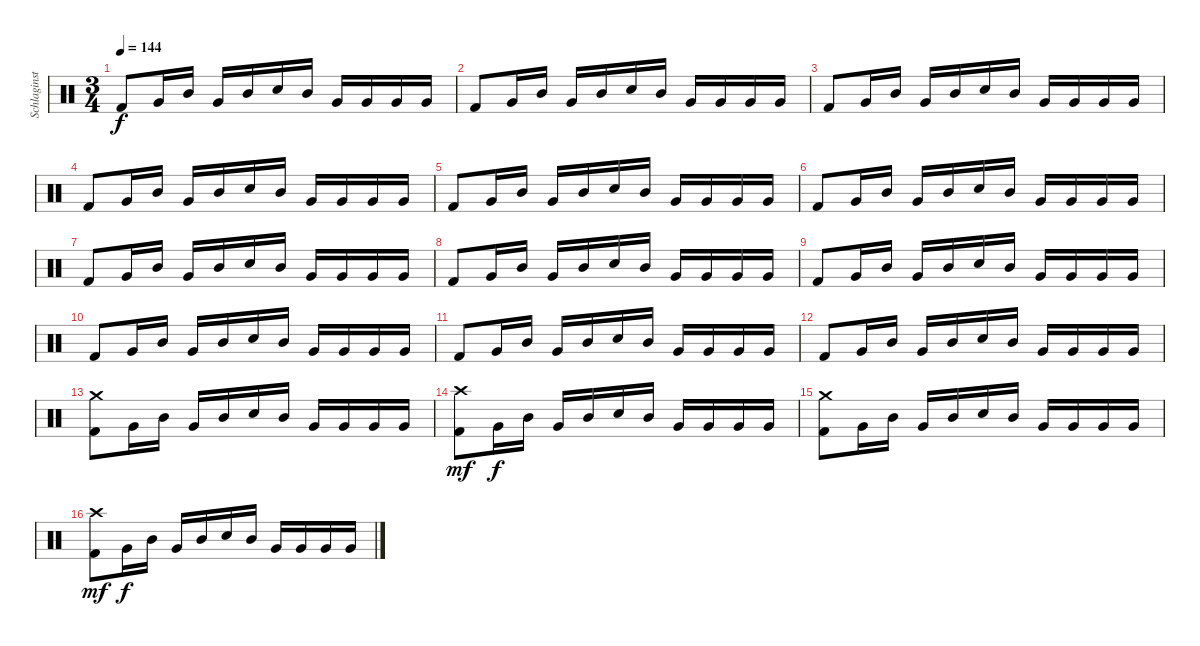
\track ("Schlaginstrumente - Auswahl" "Schlaginst") {instrument percussion}
\staff {score}
\articulation defaults
\ts (3 4)
\tempo 144
\clef neutral
\ks c "Kick (hit) 2".8{dy f} "Very Low Tom (hit)".16 "Mid Tom (hit)".16 "Very Low Tom (hit)".16 "Mid Tom (hit)".16 "Snare (hit) 2".16 "Mid Tom (hit)".16 "Very Low Tom (hit)".16 "Very Low Tom (hit)".16 "Very Low Tom (hit)".16 "Very Low Tom (hit)".16
|
"Kick (hit) 2".8 "Very Low Tom (hit)".16 "Mid Tom (hit)".16 "Very Low Tom (hit)".16 "Mid Tom (hit)".16 "Snare (hit) 2".16 "Mid Tom (hit)".16 "Very Low Tom (hit)".16 "Very Low Tom (hit)".16 "Very Low Tom (hit)".16 "Very Low Tom (hit)".16 |
"Kick (hit) 2".8 "Very Low Tom (hit)".16 "Mid Tom (hit)".16 "Very Low Tom (hit)".16 "Mid Tom (hit)".16 "Snare (hit) 2".16 "Mid Tom (hit)".16 "Very Low Tom (hit)".16 "Very Low Tom (hit)".16 "Very Low Tom (hit)".16 "Very Low Tom (hit)".16 |
"Kick (hit) 2".8 "Very Low Tom (hit)".16 "Mid Tom (hit)".16 "Very Low Tom (hit)".16 "Mid Tom (hit)".16 "Snare (hit) 2".16 "Mid Tom (hit)".16 "Very Low Tom (hit)".16 "Very Low Tom (hit)".16 "Very Low Tom (hit)".16 "Very Low Tom (hit)".16 |
"Kick (hit) 2".8 "Very Low Tom (hit)".16 "Mid Tom (hit)".16 "Very Low Tom (hit)".16 "Mid Tom (hit)".16 "Snare (hit) 2".16 "Mid Tom (hit)".16 "Very Low Tom (hit)".16 "Very Low Tom (hit)".16 "Very Low Tom (hit)".16 "Very Low Tom (hit)".16 |
"Kick (hit) 2".8 "Very Low Tom (hit)".16 "Mid Tom (hit)".16 "Very Low Tom (hit)".16 "Mid Tom (hit)".16 "Snare (hit) 2".16 "Mid Tom (hit)".16 "Very Low Tom (hit)".16 "Very Low Tom (hit)".16 "Very Low Tom (hit)".16 "Very Low Tom (hit)".16 |
"Kick (hit) 2".8 "Very Low Tom (hit)".16 "Mid Tom (hit)".16 "Very Low Tom (hit)".16 "Mid Tom (hit)".16 "Snare (hit) 2".16 "Mid Tom (hit)".16 "Very Low Tom (hit)".16 "Very Low Tom (hit)".16 "Very Low Tom (hit)".16 "Very Low Tom (hit)".16 |
"Kick (hit) 2".8 "Very Low Tom (hit)".16 "Mid Tom (hit)".16 "Very Low Tom (hit)".16 "Mid Tom (hit)".16 "Snare (hit) 2".16 "Mid Tom (hit)".16 "Very Low Tom (hit)".16 "Very Low Tom (hit)".16 "Very Low Tom (hit)".16 "Very Low Tom (hit)".16 |
"Kick (hit) 2".8 "Very Low Tom (hit)".16 "Mid Tom (hit)".16 "Very Low Tom (hit)".16 "Mid Tom (hit)".16 "Snare (hit) 2".16 "Mid Tom (hit)".16 "Very Low Tom (hit)".16 "Very Low Tom (hit)".16 "Very Low Tom (hit)".16 "Very Low Tom (hit)".16 |
"Kick (hit) 2".8 "Very Low Tom (hit)".16 "Mid Tom (hit)".16 "Very Low Tom (hit)".16 "Mid Tom (hit)".16 "Snare (hit) 2".16 "Mid Tom (hit)".16 "Very Low Tom (hit)".16 "Very Low Tom (hit)".16 "Very Low Tom (hit)".16 "Very Low Tom (hit)".16 |
"Kick (hit) 2".8 "Very Low Tom (hit)".16 "Mid Tom (hit)".16 "Very Low Tom (hit)".16 "Mid Tom (hit)".16 "Snare (hit) 2".16 "Mid Tom (hit)".16 "Very Low Tom (hit)".16 "Very Low Tom (hit)".16 "Very Low Tom (hit)".16 "Very Low Tom (hit)".16 |
"Kick (hit) 2".8 "Very Low Tom (hit)".16 "Mid Tom (hit)".16 "Very Low Tom (hit)".16 "Mid Tom (hit)".16 "Snare (hit) 2".16 "Mid Tom (hit)".16 "Very Low Tom (hit)".16 "Very Low Tom (hit)".16 "Very Low Tom (hit)".16 "Very Low Tom (hit)".16 |
("Crash medium (hit)" "Kick (hit) 2").8 "Very Low Tom (hit)".16 "Mid Tom (hit)".16 "Very Low Tom (hit)".16 "Mid Tom (hit)".16 "Snare (hit) 2".16 "Mid Tom (hit)".16 "Very Low Tom (hit)".16 "Very Low Tom (hit)".16 "Very Low Tom (hit)".16 "Very Low Tom (hit)".16 |
("Crash high (hit)" "Kick (hit) 2").8{dy mf} "Very Low Tom (hit)".16{dy f} "Mid Tom (hit)".16 "Very Low Tom (hit)".16 "Mid Tom (hit)".16 "Snare (hit) 2".16 "Mid Tom (hit)".16 "Very Low Tom (hit)".16 "Very Low Tom (hit)".16 "Very Low Tom (hit)".16 "Very Low Tom (hit)".16 |
("Crash medium (hit)" "Kick (hit) 2").8 "Very Low Tom (hit)".16 "Mid Tom (hit)".16 "Very Low Tom (hit)".16 "Mid Tom (hit)".16 "Snare (hit) 2".16 "Mid Tom (hit)".16 "Very Low Tom (hit)".16 "Very Low Tom (hit)".16 "Very Low Tom (hit)".16 "Very Low Tom (hit)".16 |
("Crash high (hit)" "Kick (hit) 2").8{dy mf} "Very Low Tom (hit)".16{dy f} "Mid Tom (hit)".16 "Very Low Tom (hit)".16 "Mid Tom (hit)".16 "Snare (hit) 2".16 "Mid Tom (hit)".16 "Very Low Tom (hit)".16 "Very Low Tom (hit)".16 "Very Low Tom (hit)".16 "Very Low Tom (hit)".16
